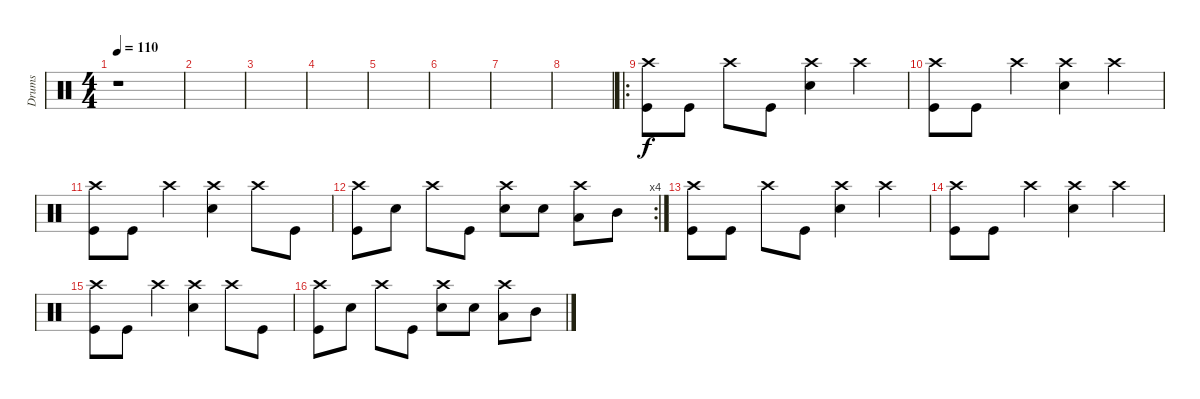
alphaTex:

\track ("Drums" "Drums") {instrument percussion}
\staff {score}
\articulation defaults
\ts (4 4)
\tempo 110
\clef neutral
\ks c
r.1{dy f} |
|
|
|
|
|
|
|
\ro
("Crash high (hit)" "Kick (hit)").8 "Kick (hit)".8 "Crash high (hit)".8 "Kick (hit)".8 ("Crash high (hit)" "Snare (hit) 2").4 "Crash high (hit)".4 |
("Crash high (hit)" "Kick (hit)").8 "Kick (hit)".8 "Crash high (hit)".4 ("Crash high (hit)" "Snare (hit) 2").4 "Crash high (hit)".4 |
("Crash high (hit)" "Kick (hit)").8 "Kick (hit)".8 "Crash high (hit)".4 ("Crash high (hit)" "Snare (hit) 2").4 "Crash high (hit)".8 "Kick (hit)".8 |
\rc 4
("Crash high (hit)" "Kick (hit)").8 "Snare (hit) 2".8 "Crash high (hit)".8 "Kick (hit)".8 ("Crash high (hit)" "Snare (hit) 2").8 "Snare (hit) 2".8 ("Crash high (hit)" "Low Tom (hit)").8 "Mid Tom (hit)".8 |
("Crash high (hit)" "Kick (hit)").8 "Kick (hit)".8 "Crash high (hit)".8 "Kick (hit)".8 ("Crash high (hit)" "Snare (hit) 2").4 "Crash high (hit)".4 |
("Crash high (hit)" "Kick (hit)").8 "Kick (hit)".8 "Crash high (hit)".4 ("Crash high (hit)" "Snare (hit) 2").4 "Crash high (hit)".4 |
("Crash high (hit)" "Kick (hit)").8 "Kick (hit)".8 "Crash high (hit)".4 ("Crash high (hit)" "Snare (hit) 2").4 "Crash high (hit)".8 "Kick (hit)".8 |
("Crash high (hit)" "Kick (hit)").8 "Snare (hit) 2".8 "Crash high (hit)".8 "Kick (hit)".8 ("Crash high (hit)" "Snare (hit) 2").8 "Snare (hit) 2".8 ("Crash high (hit)" "Low Tom (hit)").8 "Mid Tom (hit)".8
